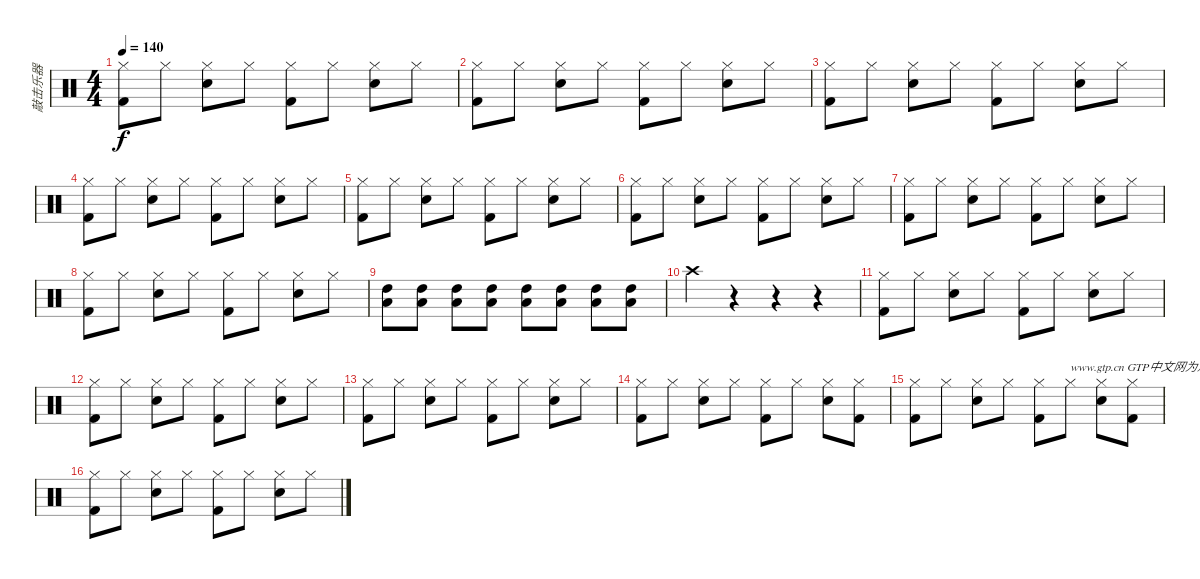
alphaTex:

\track ("敲击乐器" "敲击乐器") {instrument percussion}
\staff {score}
\articulation defaults
\ts (4 4)
\tempo 140
\clef neutral
\ks c
("Kick (hit) 2" "Hi-Hat (closed)").8{dy f} "Hi-Hat (closed)".8 ("Snare (hit) 2" "Hi-Hat (closed)").8 "Hi-Hat (closed)".8 ("Kick (hit) 2" "Hi-Hat (closed)").8 "Hi-Hat (closed)".8 ("Snare (hit) 2" "Hi-Hat (closed)").8 "Hi-Hat (closed)".8 |
("Kick (hit) 2" "Hi-Hat (closed)").8 "Hi-Hat (closed)".8 ("Snare (hit) 2" "Hi-Hat (closed)").8 "Hi-Hat (closed)".8 ("Kick (hit) 2" "Hi-Hat (closed)").8 "Hi-Hat (closed)".8 ("Snare (hit) 2" "Hi-Hat (closed)").8 "Hi-Hat (closed)".8 |
("Kick (hit) 2" "Hi-Hat (closed)").8 "Hi-Hat (closed)".8 ("Snare (hit) 2" "Hi-Hat (closed)").8 "Hi-Hat (closed)".8 ("Kick (hit) 2" "Hi-Hat (closed)").8 "Hi-Hat (closed)".8 ("Snare (hit) 2" "Hi-Hat (closed)").8 "Hi-Hat (closed)".8 |
("Kick (hit) 2" "Hi-Hat (closed)").8 "Hi-Hat (closed)".8 ("Snare (hit) 2" "Hi-Hat (closed)").8 "Hi-Hat (closed)".8 ("Kick (hit) 2" "Hi-Hat (closed)").8 "Hi-Hat (closed)".8 ("Snare (hit) 2" "Hi-Hat (closed)").8 "Hi-Hat (closed)".8 |
("Kick (hit) 2" "Hi-Hat (closed)").8 "Hi-Hat (closed)".8 ("Snare (hit) 2" "Hi-Hat (closed)").8 "Hi-Hat (closed)".8 ("Kick (hit) 2" "Hi-Hat (closed)").8 "Hi-Hat (closed)".8 ("Snare (hit) 2" "Hi-Hat (closed)").8 "Hi-Hat (closed)".8 |
("Kick (hit) 2" "Hi-Hat (closed)").8 "Hi-Hat (closed)".8 ("Snare (hit) 2" "Hi-Hat (closed)").8 "Hi-Hat (closed)".8 ("Kick (hit) 2" "Hi-Hat (closed)").8 "Hi-Hat (closed)".8 ("Snare (hit) 2" "Hi-Hat (closed)").8 "Hi-Hat (closed)".8 |
("Kick (hit) 2" "Hi-Hat (closed)").8 "Hi-Hat (closed)".8 ("Snare (hit) 2" "Hi-Hat (closed)").8 "Hi-Hat (closed)".8 ("Kick (hit) 2" "Hi-Hat (closed)").8 "Hi-Hat (closed)".8 ("Snare (hit) 2" "Hi-Hat (closed)").8 "Hi-Hat (closed)".8 |
("Kick (hit) 2" "Hi-Hat (closed)").8 "Hi-Hat (closed)".8 ("Snare (hit) 2" "Hi-Hat (closed)").8 "Hi-Hat (closed)".8 ("Kick (hit) 2" "Hi-Hat (closed)").8 "Hi-Hat (closed)".8 ("Snare (hit) 2" "Hi-Hat (closed)").8 "Hi-Hat (closed)".8 |
("High Tom (hit)" "Low Tom (hit)").8 ("High Tom (hit)" "Low Tom (hit)").8 ("High Tom (hit)" "Low Tom (hit)").8 ("High Tom (hit)" "Low Tom (hit)").8 ("High Tom (hit)" "Low Tom (hit)").8 ("High Tom (hit)" "Low Tom (hit)").8 ("High Tom (hit)" "Low Tom (hit)").8 ("High Tom (hit)" "Low Tom (hit)").8 |
"Crash high (hit)".4 r.4 r.4 r.4 |
("Kick (hit) 2" "Hi-Hat (closed)").8 "Hi-Hat (closed)".8 ("Snare (hit) 2" "Hi-Hat (closed)").8 "Hi-Hat (closed)".8 ("Kick (hit) 2" "Hi-Hat (closed)").8 "Hi-Hat (closed)".8 ("Snare (hit) 2" "Hi-Hat (closed)").8 "Hi-Hat (closed)".8 |
("Kick (hit) 2" "Hi-Hat (closed)").8 "Hi-Hat (closed)".8 ("Snare (hit) 2" "Hi-Hat (closed)").8 "Hi-Hat (closed)".8 ("Kick (hit) 2" "Hi-Hat (closed)").8 "Hi-Hat (closed)".8 ("Snare (hit) 2" "Hi-Hat (closed)").8 "Hi-Hat (closed)".8 |
("Kick (hit) 2" "Hi-Hat (closed)").8 "Hi-Hat (closed)".8 ("Snare (hit) 2" "Hi-Hat (closed)").8 "Hi-Hat (closed)".8 ("Kick (hit) 2" "Hi-Hat (closed)").8 "Hi-Hat (closed)".8 ("Snare (hit) 2" "Hi-Hat (closed)").8 "Hi-Hat (closed)".8 |
("Kick (hit) 2" "Hi-Hat (closed)").8 "Hi-Hat (closed)".8 ("Snare (hit) 2" "Hi-Hat (closed)").8 "Hi-Hat (closed)".8 ("Kick (hit) 2" "Hi-Hat (closed)").8 "Hi-Hat (closed)".8 ("Snare (hit) 2" "Hi-Hat (closed)").8 ("Kick (hit) 2" "Hi-Hat (closed)").8 |
("Kick (hit) 2" "Hi-Hat (closed)").8 "Hi-Hat (closed)".8 ("Snare (hit) 2" "Hi-Hat (closed)").8 "Hi-Hat (closed)".8 ("Kick (hit) 2" "Hi-Hat (closed)").8 "Hi-Hat (closed)".8{txt "www.gtp.cn GTP中文网为您提供优秀的谱子"} ("Snare (hit) 2" "Hi-Hat (closed)").8 ("Kick (hit) 2" "Hi-Hat (closed)").8 |
("Kick (hit) 2" "Hi-Hat (closed)").8 "Hi-Hat (closed)".8 ("Snare (hit) 2" "Hi-Hat (closed)").8 "Hi-Hat (closed)".8 ("Kick (hit) 2" "Hi-Hat (closed)").8 "Hi-Hat (closed)".8 ("Snare (hit) 2" "Hi-Hat (closed)").8 "Hi-Hat (closed)".8
